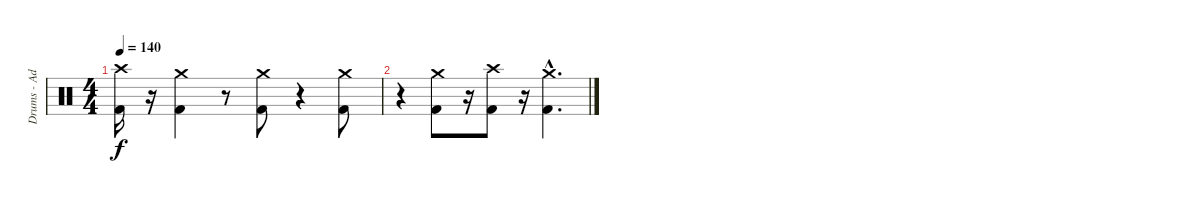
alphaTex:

\track ("Drums - Adam Carson" "Drums - Ad") {instrument percussion}
\staff {score}
\articulation defaults
\ts (4 4)
\tempo 140
\clef neutral
\ks c
("Crash high (hit)"{t} "Kick (hit) 2"{t}).16{dy f} r.16 ("Crash medium (hit)" "Kick (hit) 2").4 r.8 ("Crash medium (hit)" "Kick (hit) 2").8 r.4 ("Crash medium (hit)" "Kick (hit) 2").8 |
r.4 ("Crash medium (hit)" "Kick (hit) 2").8 r.16 ("Crash high (hit)" "Kick (hit) 2").8 r.16 ("Crash medium (hit)"{hac} "Kick (hit) 2"{hac}).4{d}
